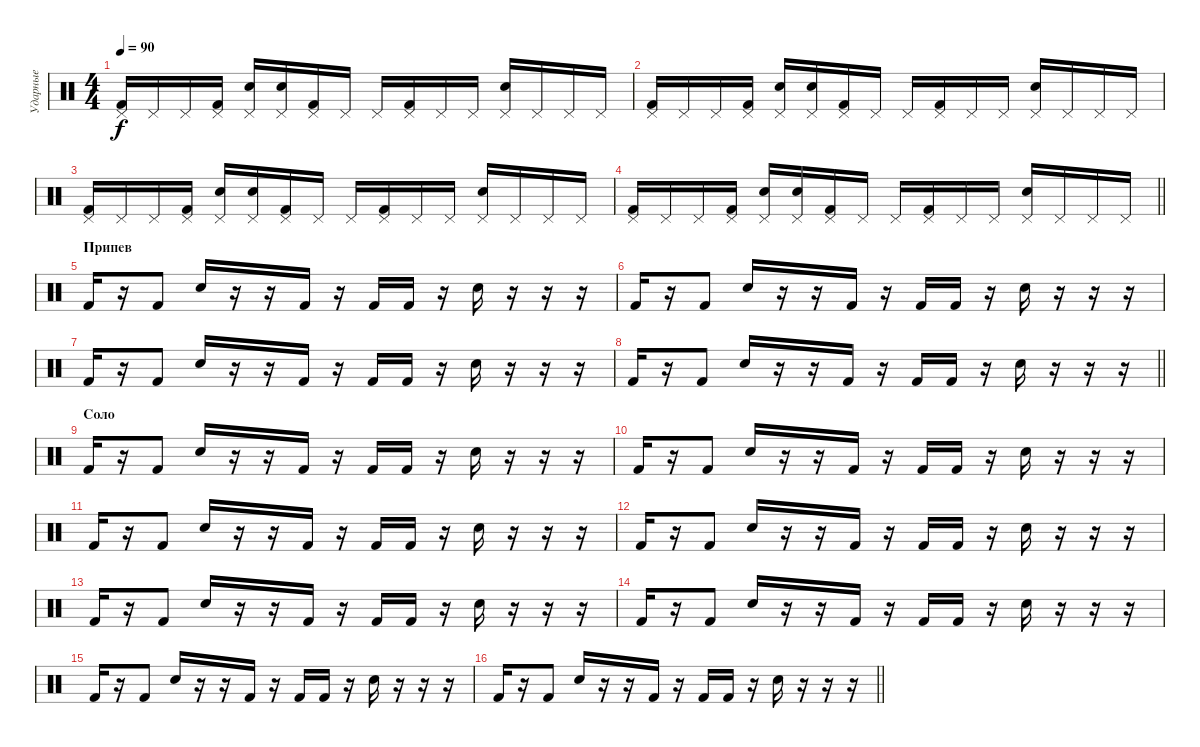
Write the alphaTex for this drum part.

\track ("Ударные" "Ударные") {instrument percussion}
\staff {score}
\articulation defaults
\ts (4 4)
\tempo 90
\clef neutral
\ks c
("Pedal Hi-Hat (hit)" "Kick (hit) 2").16{dy f} "Pedal Hi-Hat (hit)".16 "Pedal Hi-Hat (hit)".16 ("Pedal Hi-Hat (hit)" "Kick (hit) 2").16 ("Pedal Hi-Hat (hit)" "Electric Snare (hit)").16 ("Pedal Hi-Hat (hit)" "Electric Snare (hit)").16 ("Pedal Hi-Hat (hit)" "Kick (hit) 2").16 "Pedal Hi-Hat (hit)".16 "Pedal Hi-Hat (hit)".16 ("Pedal Hi-Hat (hit)" "Kick (hit) 2").16 "Pedal Hi-Hat (hit)".16 "Pedal Hi-Hat (hit)".16 ("Pedal Hi-Hat (hit)" "Electric Snare (hit)").16 "Pedal Hi-Hat (hit)".16 "Pedal Hi-Hat (hit)".16 "Pedal Hi-Hat (hit)".16 |
("Pedal Hi-Hat (hit)" "Kick (hit) 2").16 "Pedal Hi-Hat (hit)".16 "Pedal Hi-Hat (hit)".16 ("Pedal Hi-Hat (hit)" "Kick (hit) 2").16 ("Pedal Hi-Hat (hit)" "Electric Snare (hit)").16 ("Pedal Hi-Hat (hit)" "Electric Snare (hit)").16 ("Pedal Hi-Hat (hit)" "Kick (hit) 2").16 "Pedal Hi-Hat (hit)".16 "Pedal Hi-Hat (hit)".16 ("Pedal Hi-Hat (hit)" "Kick (hit) 2").16 "Pedal Hi-Hat (hit)".16 "Pedal Hi-Hat (hit)".16 ("Pedal Hi-Hat (hit)" "Electric Snare (hit)").16 "Pedal Hi-Hat (hit)".16 "Pedal Hi-Hat (hit)".16 "Pedal Hi-Hat (hit)".16 |
("Pedal Hi-Hat (hit)" "Kick (hit) 2").16 "Pedal Hi-Hat (hit)".16 "Pedal Hi-Hat (hit)".16 ("Pedal Hi-Hat (hit)" "Kick (hit) 2").16 ("Pedal Hi-Hat (hit)" "Electric Snare (hit)").16 ("Pedal Hi-Hat (hit)" "Electric Snare (hit)").16 ("Pedal Hi-Hat (hit)" "Kick (hit) 2").16 "Pedal Hi-Hat (hit)".16 "Pedal Hi-Hat (hit)".16 ("Pedal Hi-Hat (hit)" "Kick (hit) 2").16 "Pedal Hi-Hat (hit)".16 "Pedal Hi-Hat (hit)".16 ("Pedal Hi-Hat (hit)" "Electric Snare (hit)").16 "Pedal Hi-Hat (hit)".16 "Pedal Hi-Hat (hit)".16 "Pedal Hi-Hat (hit)".16 |
\barLineRight lightlight
("Pedal Hi-Hat (hit)" "Kick (hit) 2").16 "Pedal Hi-Hat (hit)".16 "Pedal Hi-Hat (hit)".16 ("Pedal Hi-Hat (hit)" "Kick (hit) 2").16 ("Pedal Hi-Hat (hit)" "Electric Snare (hit)").16 ("Pedal Hi-Hat (hit)" "Electric Snare (hit)").16 ("Pedal Hi-Hat (hit)" "Kick (hit) 2").16 "Pedal Hi-Hat (hit)".16 "Pedal Hi-Hat (hit)".16 ("Pedal Hi-Hat (hit)" "Kick (hit) 2").16 "Pedal Hi-Hat (hit)".16 "Pedal Hi-Hat (hit)".16 ("Pedal Hi-Hat (hit)" "Electric Snare (hit)").16 "Pedal Hi-Hat (hit)".16 "Pedal Hi-Hat (hit)".16 "Pedal Hi-Hat (hit)".16 |
\section ("" "Припев")
"Kick (hit) 2".16 r.16 "Kick (hit) 2".8 "Electric Snare (hit)".16 r.16 r.16 "Kick (hit) 2".16 r.16 "Kick (hit) 2".16 "Kick (hit) 2".16 r.16 "Electric Snare (hit)".16 r.16 r.16 r.16 |
"Kick (hit) 2".16 r.16 "Kick (hit) 2".8 "Electric Snare (hit)".16 r.16 r.16 "Kick (hit) 2".16 r.16 "Kick (hit) 2".16 "Kick (hit) 2".16 r.16 "Electric Snare (hit)".16 r.16 r.16 r.16 |
"Kick (hit) 2".16 r.16 "Kick (hit) 2".8 "Electric Snare (hit)".16 r.16 r.16 "Kick (hit) 2".16 r.16 "Kick (hit) 2".16 "Kick (hit) 2".16 r.16 "Electric Snare (hit)".16 r.16 r.16 r.16 |
\barLineRight lightlight "Kick (hit) 2".16
r.16 "Kick (hit) 2".8 "Electric Snare (hit)".16 r.16 r.16 "Kick (hit) 2".16 r.16 "Kick (hit) 2".16 "Kick (hit) 2".16 r.16 "Electric Snare (hit)".16 r.16 r.16 r.16 |
\section ("" "Соло")
"Kick (hit) 2".16 r.16 "Kick (hit) 2".8 "Electric Snare (hit)".16 r.16 r.16 "Kick (hit) 2".16 r.16 "Kick (hit) 2".16 "Kick (hit) 2".16 r.16 "Electric Snare (hit)".16 r.16 r.16 r.16 |
"Kick (hit) 2".16 r.16 "Kick (hit) 2".8 "Electric Snare (hit)".16 r.16 r.16 "Kick (hit) 2".16 r.16 "Kick (hit) 2".16 "Kick (hit) 2".16 r.16 "Electric Snare (hit)".16 r.16 r.16 r.16 |
"Kick (hit) 2".16 r.16 "Kick (hit) 2".8 "Electric Snare (hit)".16 r.16 r.16 "Kick (hit) 2".16 r.16 "Kick (hit) 2".16 "Kick (hit) 2".16 r.16 "Electric Snare (hit)".16 r.16 r.16 r.16 |
"Kick (hit) 2".16 r.16 "Kick (hit) 2".8 "Electric Snare (hit)".16 r.16 r.16 "Kick (hit) 2".16 r.16 "Kick (hit) 2".16 "Kick (hit) 2".16 r.16 "Electric Snare (hit)".16 r.16 r.16 r.16 |
"Kick (hit) 2".16 r.16 "Kick (hit) 2".8 "Electric Snare (hit)".16 r.16 r.16 "Kick (hit) 2".16 r.16 "Kick (hit) 2".16 "Kick (hit) 2".16 r.16 "Electric Snare (hit)".16 r.16 r.16 r.16 |
"Kick (hit) 2".16 r.16 "Kick (hit) 2".8 "Electric Snare (hit)".16 r.16 r.16 "Kick (hit) 2".16 r.16 "Kick (hit) 2".16 "Kick (hit) 2".16 r.16 "Electric Snare (hit)".16 r.16 r.16 r.16 |
"Kick (hit) 2".16 r.16 "Kick (hit) 2".8 "Electric Snare (hit)".16 r.16 r.16 "Kick (hit) 2".16 r.16 "Kick (hit) 2".16 "Kick (hit) 2".16 r.16 "Electric Snare (hit)".16 r.16 r.16 r.16 |
\barLineRight lightlight "Kick (hit) 2".16
r.16 "Kick (hit) 2".8 "Electric Snare (hit)".16 r.16 r.16 "Kick (hit) 2".16 r.16 "Kick (hit) 2".16 "Kick (hit) 2".16 r.16 "Electric Snare (hit)".16 r.16 r.16 r.16
